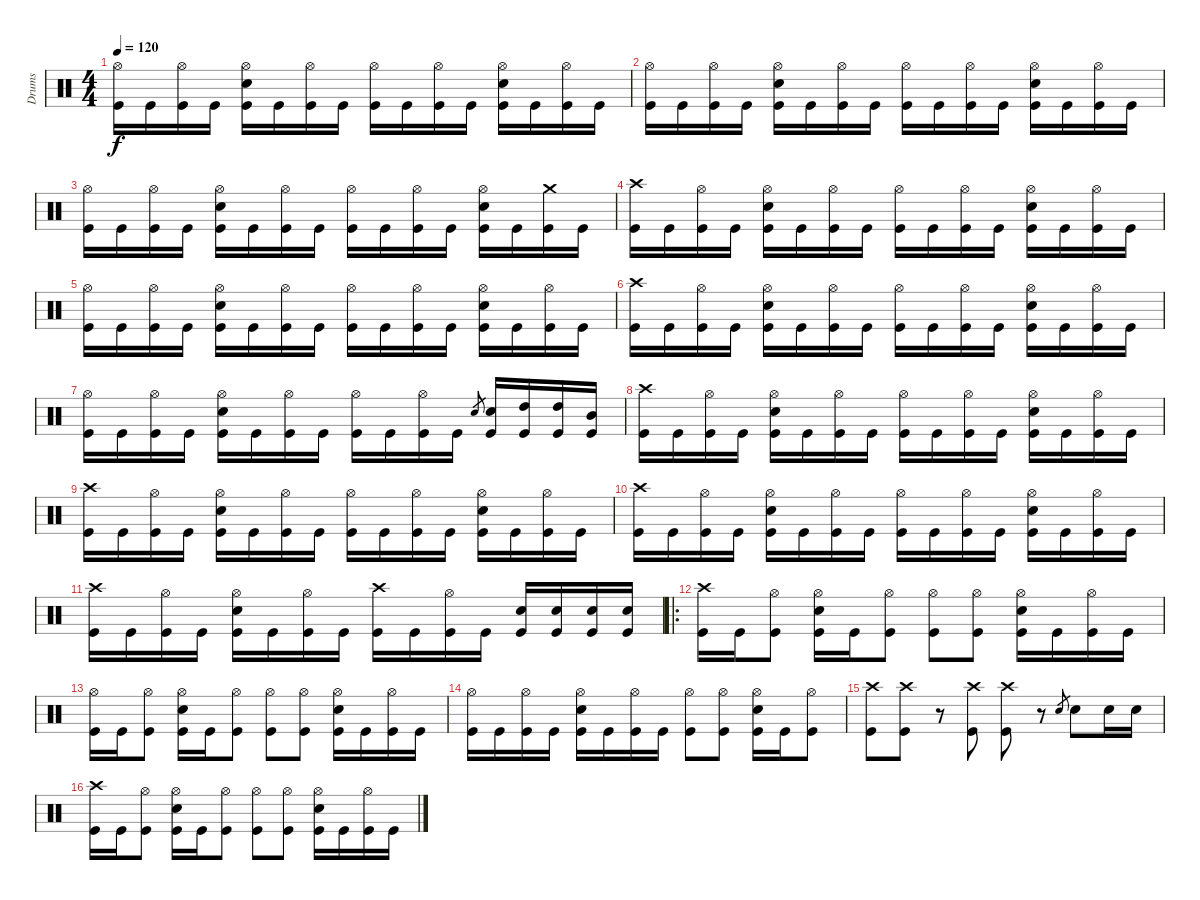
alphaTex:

\track ("Drums" "Drums") {instrument percussion}
\staff {score}
\articulation defaults
\ts (4 4)
\tempo 120
\clef neutral
\ks c
("Kick (hit)" "Hi-Hat (open)").16{dy f} "Kick (hit)".16 ("Kick (hit)" "Hi-Hat (open)").16 "Kick (hit)".16 ("Kick (hit)" "Electric Snare (hit)" "Hi-Hat (open)").16 "Kick (hit)".16 ("Kick (hit)" "Hi-Hat (open)").16 "Kick (hit)".16 ("Kick (hit)" "Hi-Hat (open)").16 "Kick (hit)".16 ("Kick (hit)" "Hi-Hat (open)").16 "Kick (hit)".16 ("Kick (hit)" "Electric Snare (hit)" "Hi-Hat (open)").16 "Kick (hit)".16 ("Kick (hit)" "Hi-Hat (open)").16 "Kick (hit)".16 |
("Kick (hit)" "Hi-Hat (open)").16 "Kick (hit)".16 ("Kick (hit)" "Hi-Hat (open)").16 "Kick (hit)".16 ("Kick (hit)" "Electric Snare (hit)" "Hi-Hat (open)").16 "Kick (hit)".16 ("Kick (hit)" "Hi-Hat (open)").16 "Kick (hit)".16 ("Kick (hit)" "Hi-Hat (open)").16 "Kick (hit)".16 ("Kick (hit)" "Hi-Hat (open)").16 "Kick (hit)".16 ("Kick (hit)" "Electric Snare (hit)" "Hi-Hat (open)").16 "Kick (hit)".16 ("Kick (hit)" "Hi-Hat (open)").16 "Kick (hit)".16 |
("Kick (hit)" "Hi-Hat (open)").16 "Kick (hit)".16 ("Kick (hit)" "Hi-Hat (open)").16 "Kick (hit)".16 ("Kick (hit)" "Electric Snare (hit)" "Hi-Hat (open)").16 "Kick (hit)".16 ("Kick (hit)" "Hi-Hat (open)").16 "Kick (hit)".16 ("Kick (hit)" "Hi-Hat (open)").16 "Kick (hit)".16 ("Kick (hit)" "Hi-Hat (open)").16 "Kick (hit)".16 ("Kick (hit)" "Electric Snare (hit)" "Hi-Hat (open)").16 "Kick (hit)".16 ("Kick (hit)" "Crash medium (hit)").16 "Kick (hit)".16 |
("Kick (hit)" "Crash high (hit)").16 "Kick (hit)".16 ("Kick (hit)" "Hi-Hat (open)").16 "Kick (hit)".16 ("Kick (hit)" "Electric Snare (hit)" "Hi-Hat (open)").16 "Kick (hit)".16 ("Kick (hit)" "Hi-Hat (open)").16 "Kick (hit)".16 ("Kick (hit)" "Hi-Hat (open)").16 "Kick (hit)".16 ("Kick (hit)" "Hi-Hat (open)").16 "Kick (hit)".16 ("Kick (hit)" "Electric Snare (hit)" "Hi-Hat (open)").16 "Kick (hit)".16 ("Kick (hit)" "Hi-Hat (open)").16 "Kick (hit)".16 |
("Kick (hit)" "Hi-Hat (open)").16 "Kick (hit)".16 ("Kick (hit)" "Hi-Hat (open)").16 "Kick (hit)".16 ("Kick (hit)" "Electric Snare (hit)" "Hi-Hat (open)").16 "Kick (hit)".16 ("Kick (hit)" "Hi-Hat (open)").16 "Kick (hit)".16 ("Kick (hit)" "Hi-Hat (open)").16 "Kick (hit)".16 ("Kick (hit)" "Hi-Hat (open)").16 "Kick (hit)".16 ("Kick (hit)" "Electric Snare (hit)" "Hi-Hat (open)").16 "Kick (hit)".16 ("Kick (hit)" "Hi-Hat (open)").16 "Kick (hit)".16 |
("Kick (hit)" "Crash high (hit)").16 "Kick (hit)".16 ("Kick (hit)" "Hi-Hat (open)").16 "Kick (hit)".16 ("Kick (hit)" "Electric Snare (hit)" "Hi-Hat (open)").16 "Kick (hit)".16 ("Kick (hit)" "Hi-Hat (open)").16 "Kick (hit)".16 ("Kick (hit)" "Hi-Hat (open)").16 "Kick (hit)".16 ("Kick (hit)" "Hi-Hat (open)").16 "Kick (hit)".16 ("Kick (hit)" "Electric Snare (hit)" "Hi-Hat (open)").16 "Kick (hit)".16 ("Kick (hit)" "Hi-Hat (open)").16 "Kick (hit)".16 |
("Kick (hit)" "Hi-Hat (open)").16 "Kick (hit)".16 ("Kick (hit)" "Hi-Hat (open)").16 "Kick (hit)".16 ("Kick (hit)" "Electric Snare (hit)" "Hi-Hat (open)").16 "Kick (hit)".16 ("Kick (hit)" "Hi-Hat (open)").16 "Kick (hit)".16 ("Kick (hit)" "Hi-Hat (open)").16 "Kick (hit)".16 ("Kick (hit)" "Hi-Hat (open)").16 "Kick (hit)".16 "Electric Snare (hit)".8{gr} ("Kick (hit)" "Electric Snare (hit)").16 ("Kick (hit)" "High Tom (hit)").16 ("Kick (hit)" "High Tom (hit)").16 ("Kick (hit)" "Mid Tom (hit)").16 |
("Kick (hit)" "Crash high (hit)").16 "Kick (hit)".16 ("Kick (hit)" "Hi-Hat (open)").16 "Kick (hit)".16 ("Kick (hit)" "Electric Snare (hit)" "Hi-Hat (open)").16 "Kick (hit)".16 ("Kick (hit)" "Hi-Hat (open)").16 "Kick (hit)".16 ("Kick (hit)" "Hi-Hat (open)").16 "Kick (hit)".16 ("Kick (hit)" "Hi-Hat (open)").16 "Kick (hit)".16 ("Kick (hit)" "Electric Snare (hit)" "Hi-Hat (open)").16 "Kick (hit)".16 ("Kick (hit)" "Hi-Hat (open)").16 "Kick (hit)".16 |
("Kick (hit)" "Crash high (hit)").16 "Kick (hit)".16 ("Kick (hit)" "Hi-Hat (open)").16 "Kick (hit)".16 ("Kick (hit)" "Electric Snare (hit)" "Hi-Hat (open)").16 "Kick (hit)".16 ("Kick (hit)" "Hi-Hat (open)").16 "Kick (hit)".16 ("Kick (hit)" "Hi-Hat (open)").16 "Kick (hit)".16 ("Kick (hit)" "Hi-Hat (open)").16 "Kick (hit)".16 ("Kick (hit)" "Electric Snare (hit)" "Hi-Hat (open)").16 "Kick (hit)".16 ("Kick (hit)" "Hi-Hat (open)").16 "Kick (hit)".16 |
("Kick (hit)" "Crash high (hit)").16 "Kick (hit)".16 ("Kick (hit)" "Hi-Hat (open)").16 "Kick (hit)".16 ("Kick (hit)" "Electric Snare (hit)" "Hi-Hat (open)").16 "Kick (hit)".16 ("Kick (hit)" "Hi-Hat (open)").16 "Kick (hit)".16 ("Kick (hit)" "Hi-Hat (open)").16 "Kick (hit)".16 ("Kick (hit)" "Hi-Hat (open)").16 "Kick (hit)".16 ("Kick (hit)" "Electric Snare (hit)" "Hi-Hat (open)").16 "Kick (hit)".16 ("Kick (hit)" "Hi-Hat (open)").16 "Kick (hit)".16 |
("Kick (hit)" "Crash high (hit)").16 "Kick (hit)".16 ("Kick (hit)" "Hi-Hat (open)").16 "Kick (hit)".16 ("Kick (hit)" "Electric Snare (hit)" "Hi-Hat (open)").16 "Kick (hit)".16 ("Kick (hit)" "Hi-Hat (open)").16 "Kick (hit)".16 ("Kick (hit)" "Crash high (hit)").16 "Kick (hit)".16 ("Kick (hit)" "Hi-Hat (open)").16 "Kick (hit)".16 ("Kick (hit)" "Electric Snare (hit)").16 ("Kick (hit)" "Electric Snare (hit)").16 ("Kick (hit)" "Electric Snare (hit)").16 ("Kick (hit)" "Electric Snare (hit)").16 |
\ro
("Kick (hit)" "Crash high (hit)").16 "Kick (hit)".16 ("Kick (hit)" "Hi-Hat (open)").8 ("Kick (hit)" "Electric Snare (hit)" "Hi-Hat (open)").16 "Kick (hit)".16 ("Kick (hit)" "Hi-Hat (open)").8 ("Kick (hit)" "Hi-Hat (open)").8 ("Kick (hit)" "Hi-Hat (open)").8 ("Kick (hit)" "Electric Snare (hit)" "Hi-Hat (open)").16 "Kick (hit)".16 ("Kick (hit)" "Hi-Hat (open)").16 "Kick (hit)".16 |
("Kick (hit)" "Hi-Hat (open)").16 "Kick (hit)".16 ("Kick (hit)" "Hi-Hat (open)").8 ("Kick (hit)" "Electric Snare (hit)" "Hi-Hat (open)").16 "Kick (hit)".16 ("Kick (hit)" "Hi-Hat (open)").8 ("Kick (hit)" "Hi-Hat (open)").8 ("Kick (hit)" "Hi-Hat (open)").8 ("Kick (hit)" "Electric Snare (hit)" "Hi-Hat (open)").16 "Kick (hit)".16 ("Kick (hit)" "Hi-Hat (open)").16 "Kick (hit)".16 |
("Kick (hit)" "Hi-Hat (open)").16 "Kick (hit)".16 ("Kick (hit)" "Hi-Hat (open)").16 "Kick (hit)".16 ("Kick (hit)" "Electric Snare (hit)" "Hi-Hat (open)").16 "Kick (hit)".16 ("Kick (hit)" "Hi-Hat (open)").16 "Kick (hit)".16 ("Kick (hit)" "Hi-Hat (open)").8 ("Kick (hit)" "Hi-Hat (open)").8 ("Kick (hit)" "Electric Snare (hit)" "Hi-Hat (open)").16 "Kick (hit)".16 ("Kick (hit)" "Hi-Hat (open)").8 |
("Kick (hit)" "Crash high (hit)").8 ("Kick (hit)" "Crash high (hit)").8 r.8 ("Kick (hit)" "Crash high (hit)").8 ("Kick (hit)" "Crash high (hit)").8 r.8 "Electric Snare (hit)".8{gr} "Electric Snare (hit)".8 "Electric Snare (hit)".16 "Electric Snare (hit)".16 |
("Kick (hit)" "Crash high (hit)").16 "Kick (hit)".16 ("Kick (hit)" "Hi-Hat (open)").8 ("Kick (hit)" "Electric Snare (hit)" "Hi-Hat (open)").16 "Kick (hit)".16 ("Kick (hit)" "Hi-Hat (open)").8 ("Kick (hit)" "Hi-Hat (open)").8 ("Kick (hit)" "Hi-Hat (open)").8 ("Kick (hit)" "Electric Snare (hit)" "Hi-Hat (open)").16 "Kick (hit)".16 ("Kick (hit)" "Hi-Hat (open)").16 "Kick (hit)".16
